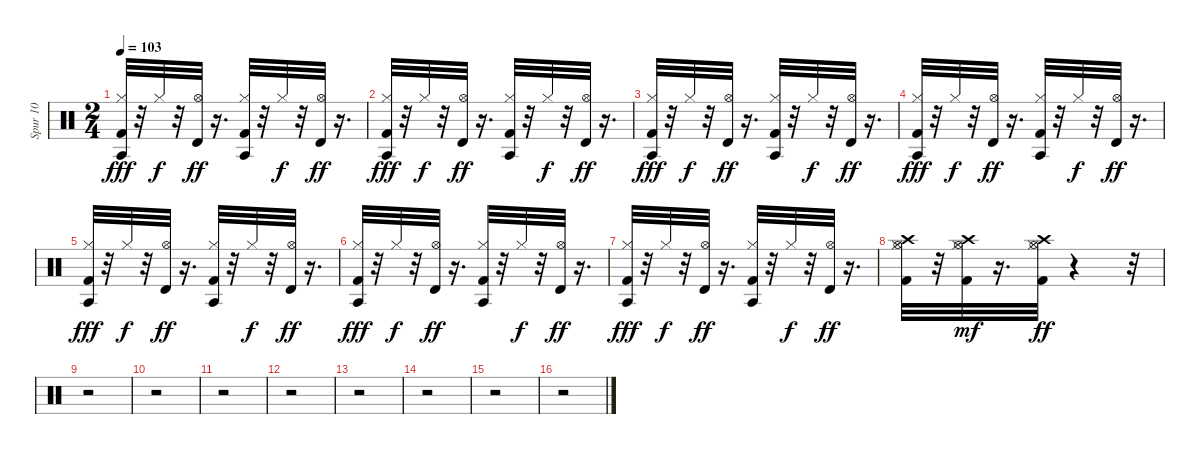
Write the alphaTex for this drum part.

\track ("Spur 10" "Spur 10") {instrument percussion}
\staff {score}
\articulation defaults
\ts (2 4)
\tempo 103
\clef neutral
\ks c
("Kick (hit) 2" "Hi-Hat (closed)" "Agogo tow (hit)").32{dy fff} r.32 "Hi-Hat (closed)".32{dy f} r.32 ("Hi-Hat (open)" "Timbale high (hit)").32{dy ff} r.16{d} ("Kick (hit) 2" "Hi-Hat (closed)" "Agogo tow (hit)").32 r.32 "Hi-Hat (closed)".32{dy f} r.32 ("Hi-Hat (open)" "Timbale high (hit)").32{dy ff} r.16{d} |
("Kick (hit) 2" "Hi-Hat (closed)" "Agogo tow (hit)").32{dy fff} r.32 "Hi-Hat (closed)".32{dy f} r.32 ("Hi-Hat (open)" "Timbale high (hit)").32{dy ff} r.16{d} ("Kick (hit) 2" "Hi-Hat (closed)" "Agogo tow (hit)").32 r.32 "Hi-Hat (closed)".32{dy f} r.32 ("Hi-Hat (open)" "Timbale high (hit)").32{dy ff} r.16{d} |
("Kick (hit) 2" "Hi-Hat (closed)" "Agogo tow (hit)").32{dy fff} r.32 "Hi-Hat (closed)".32{dy f} r.32 ("Hi-Hat (open)" "Timbale high (hit)").32{dy ff} r.16{d} ("Kick (hit) 2" "Hi-Hat (closed)" "Agogo tow (hit)").32 r.32 "Hi-Hat (closed)".32{dy f} r.32 ("Hi-Hat (open)" "Timbale high (hit)").32{dy ff} r.16{d} |
("Kick (hit) 2" "Hi-Hat (closed)" "Agogo tow (hit)").32{dy fff} r.32 "Hi-Hat (closed)".32{dy f} r.32 ("Hi-Hat (open)" "Timbale high (hit)").32{dy ff} r.16{d} ("Kick (hit) 2" "Hi-Hat (closed)" "Agogo tow (hit)").32 r.32 "Hi-Hat (closed)".32{dy f} r.32 ("Hi-Hat (open)" "Timbale high (hit)").32{dy ff} r.16{d} |
("Kick (hit) 2" "Hi-Hat (closed)" "Agogo tow (hit)").32{dy fff} r.32 "Hi-Hat (closed)".32{dy f} r.32 ("Hi-Hat (open)" "Timbale high (hit)").32{dy ff} r.16{d} ("Kick (hit) 2" "Hi-Hat (closed)" "Agogo tow (hit)").32 r.32 "Hi-Hat (closed)".32{dy f} r.32 ("Hi-Hat (open)" "Timbale high (hit)").32{dy ff} r.16{d} |
("Kick (hit) 2" "Hi-Hat (closed)" "Agogo tow (hit)").32{dy fff} r.32 "Hi-Hat (closed)".32{dy f} r.32 ("Hi-Hat (open)" "Timbale high (hit)").32{dy ff} r.16{d} ("Kick (hit) 2" "Hi-Hat (closed)" "Agogo tow (hit)").32 r.32 "Hi-Hat (closed)".32{dy f} r.32 ("Hi-Hat (open)" "Timbale high (hit)").32{dy ff} r.16{d} |
("Kick (hit) 2" "Hi-Hat (closed)" "Agogo tow (hit)").32{dy fff} r.32 "Hi-Hat (closed)".32{dy f} r.32 ("Hi-Hat (open)" "Timbale high (hit)").32{dy ff} r.16{d} ("Kick (hit) 2" "Hi-Hat (closed)" "Agogo tow (hit)").32 r.32 "Hi-Hat (closed)".32{dy f} r.32 ("Hi-Hat (open)" "Timbale high (hit)").32{dy ff} r.16{d} |
("Kick (hit) 2" "Hi-Hat (closed)" "Hi-Hat (open)" "Crash high (hit)").32 r.32 ("Kick (hit) 2" "Hi-Hat (closed)" "Hi-Hat (open)" "Crash high (hit)").32{dy mf} r.16{d} ("Kick (hit) 2" "Hi-Hat (closed)" "Hi-Hat (open)" "Crash high (hit)").32{dy ff} r.4 r.32 |
r.2 |
r.2 |
r.2 |
r.2 |
r.2 |
r.2 |
r.2 |
r.2
